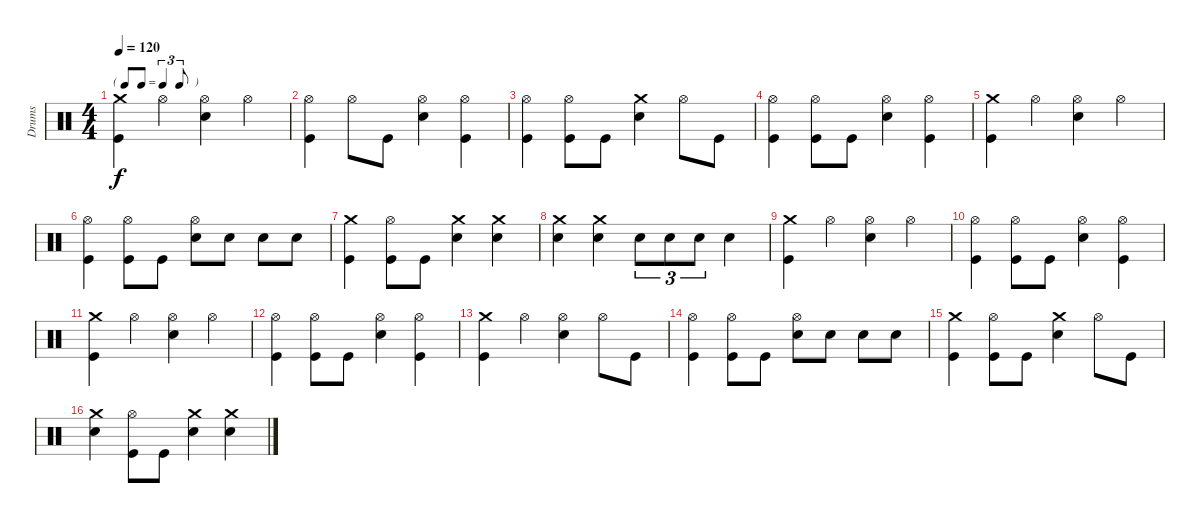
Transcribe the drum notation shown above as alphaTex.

\track ("Drums" "Drums") {instrument percussion}
\staff {score}
\articulation defaults
\ts (4 4)
\tf triplet8th
\tempo 120
\clef neutral
\ks c
("Kick (hit)" "Crash medium (hit)").4{dy f} "Hi-Hat (open)".4 ("Electric Snare (hit)" "Hi-Hat (open)").4 "Hi-Hat (open)".4 |
("Kick (hit)" "Hi-Hat (open)").4 "Hi-Hat (open)".8 "Kick (hit)".8 ("Electric Snare (hit)" "Hi-Hat (open)").4 ("Kick (hit)" "Hi-Hat (open)").4 |
("Kick (hit)" "Hi-Hat (open)").4 ("Kick (hit)" "Hi-Hat (open)").8 "Kick (hit)".8 ("Electric Snare (hit)" "Crash medium (hit)").4 "Hi-Hat (open)".8 "Kick (hit)".8 |
("Kick (hit)" "Hi-Hat (open)").4 ("Kick (hit)" "Hi-Hat (open)").8 "Kick (hit)".8 ("Electric Snare (hit)" "Hi-Hat (open)").4 ("Kick (hit)" "Hi-Hat (open)").4 |
("Kick (hit)" "Crash medium (hit)").4 "Hi-Hat (open)".4 ("Electric Snare (hit)" "Hi-Hat (open)").4 "Hi-Hat (open)".4 |
("Kick (hit)" "Hi-Hat (open)").4 ("Kick (hit)" "Hi-Hat (open)").8 "Kick (hit)".8 ("Electric Snare (hit)" "Hi-Hat (open)").8 "Electric Snare (hit)".8 "Electric Snare (hit)".8 "Electric Snare (hit)".8 |
("Kick (hit)" "Crash medium (hit)").4 ("Kick (hit)" "Hi-Hat (open)").8 "Kick (hit)".8 ("Electric Snare (hit)" "Crash medium (hit)").4 ("Electric Snare (hit)" "Crash medium (hit)").4 |
("Electric Snare (hit)" "Crash medium (hit)").4 ("Electric Snare (hit)" "Crash medium (hit)").4 "Electric Snare (hit)".8{tu (3 2)} "Electric Snare (hit)".8{tu (3 2)} "Electric Snare (hit)".8{tu (3 2)} "Electric Snare (hit)".4 |
("Kick (hit)" "Crash medium (hit)").4 "Hi-Hat (open)".4 ("Electric Snare (hit)" "Hi-Hat (open)").4 "Hi-Hat (open)".4 |
("Kick (hit)" "Hi-Hat (open)").4 ("Kick (hit)" "Hi-Hat (open)").8 "Kick (hit)".8 ("Electric Snare (hit)" "Hi-Hat (open)").4 ("Kick (hit)" "Hi-Hat (open)").4 |
("Kick (hit)" "Crash medium (hit)").4 "Hi-Hat (open)".4 ("Electric Snare (hit)" "Hi-Hat (open)").4 "Hi-Hat (open)".4 |
("Kick (hit)" "Hi-Hat (open)").4 ("Kick (hit)" "Hi-Hat (open)").8 "Kick (hit)".8 ("Electric Snare (hit)" "Hi-Hat (open)").4 ("Kick (hit)" "Hi-Hat (open)").4 |
("Kick (hit)" "Crash medium (hit)").4 "Hi-Hat (open)".4 ("Electric Snare (hit)" "Hi-Hat (open)").4 "Hi-Hat (open)".8 "Kick (hit)".8 |
("Kick (hit)" "Hi-Hat (open)").4 ("Kick (hit)" "Hi-Hat (open)").8 "Kick (hit)".8 ("Electric Snare (hit)" "Hi-Hat (open)").8 "Electric Snare (hit)".8 "Electric Snare (hit)".8 "Electric Snare (hit)".8 |
("Kick (hit)" "Crash medium (hit)").4 ("Kick (hit)" "Hi-Hat (open)").8 "Kick (hit)".8 ("Electric Snare (hit)" "Crash medium (hit)").4 "Hi-Hat (open)".8 "Kick (hit)".8 |
("Electric Snare (hit)" "Crash medium (hit)").4 ("Kick (hit)" "Hi-Hat (open)").8 "Kick (hit)".8 ("Electric Snare (hit)" "Crash medium (hit)").4 ("Electric Snare (hit)" "Crash medium (hit)").4
